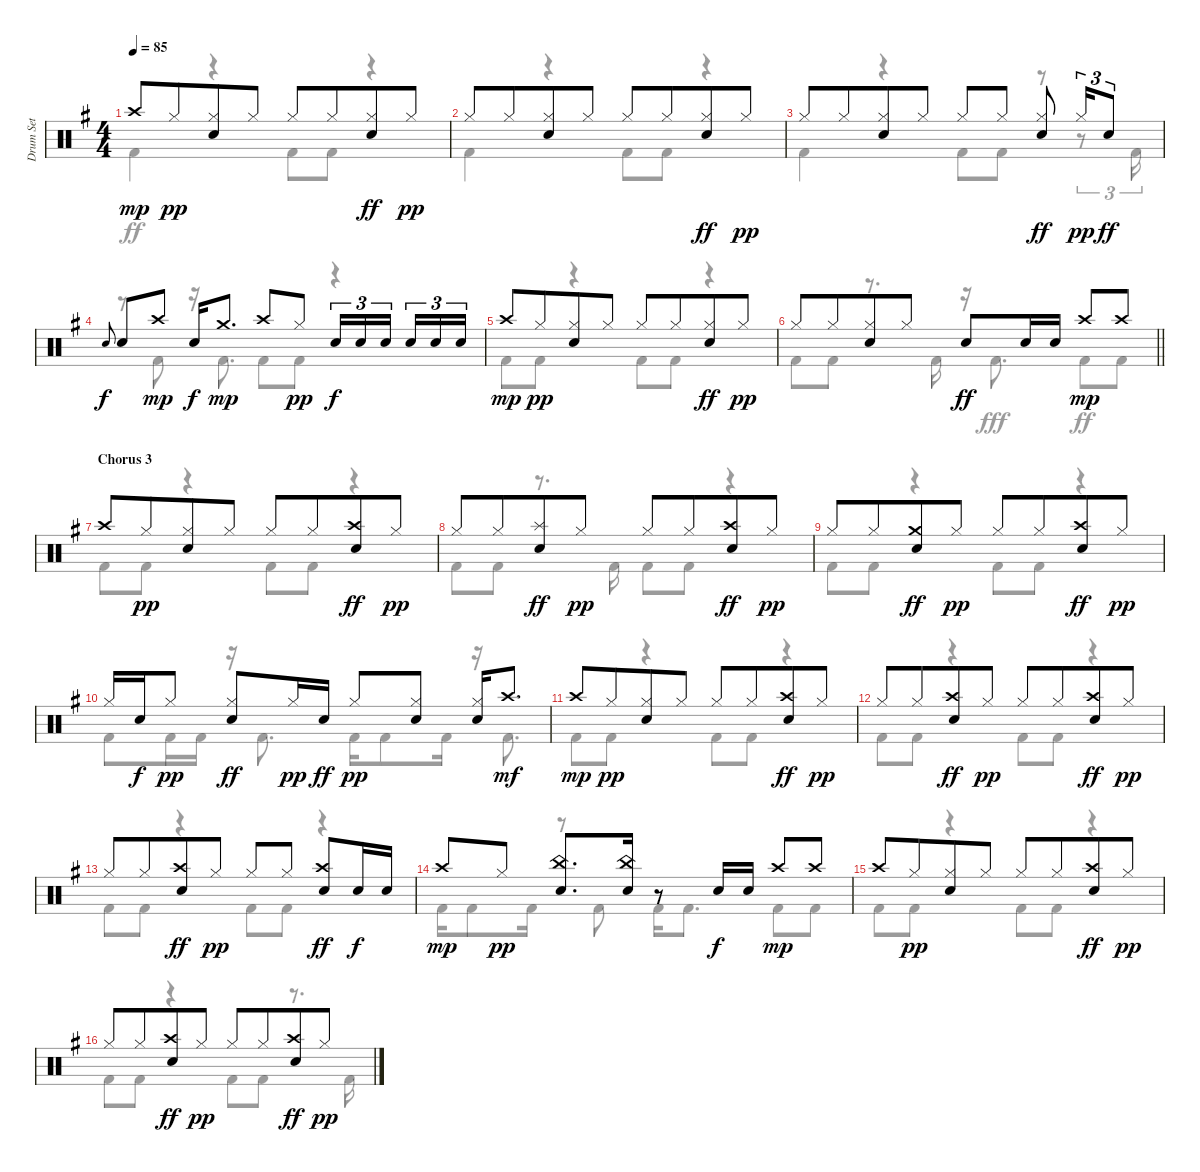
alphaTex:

\track ("Drum Set" "Drum Set") {instrument percussion}
\staff {score}
\articulation defaults
\voice
\ts (4 4)
\tempo 85
\clef neutral
\ks g "Crash high (hit)".8{dy mp} "Hi-Hat (closed)".8{dy pp beam merge}
("Hi-Hat (closed)" "Electric Snare (hit)").8 "Hi-Hat (closed)".8 "Hi-Hat (closed)".8 "Hi-Hat (closed)".8{beam merge} ("Hi-Hat (closed)" "Electric Snare (hit)").8{dy ff} "Hi-Hat (closed)".8{dy pp} |
"Hi-Hat (closed)".8 "Hi-Hat (closed)".8{beam merge} ("Hi-Hat (closed)" "Electric Snare (hit)").8 "Hi-Hat (closed)".8 "Hi-Hat (closed)".8 "Hi-Hat (closed)".8{beam merge} ("Hi-Hat (closed)" "Electric Snare (hit)").8{dy ff} "Hi-Hat (closed)".8{dy pp} |
"Hi-Hat (closed)".8 "Hi-Hat (closed)".8{beam merge} ("Hi-Hat (closed)" "Electric Snare (hit)").8 "Hi-Hat (closed)".8 "Hi-Hat (closed)".8 "Hi-Hat (closed)".8 ("Hi-Hat (closed)" "Electric Snare (hit)").8{dy ff} "Hi-Hat (closed)".16{tu (3 2) dy pp} "Electric Snare (hit)".8{tu (3 2) dy ff} |
"Electric Snare (hit)".8{gr onbeat dy f} "Electric Snare (hit)".8 "Crash high (hit)".8{dy mp} "Electric Snare (hit)".16{dy f} "Crash medium (hit)".8{d dy mp} "Crash high (hit)".8 "Hi-Hat (closed)".8{dy pp} "Electric Snare (hit)".16{tu (3 2) dy f} "Electric Snare (hit)".16{tu (3 2)} "Electric Snare (hit)".16{tu (3 2) beam splitsecondary} "Electric Snare (hit)".16{tu (3 2)} "Electric Snare (hit)".16{tu (3 2)} "Electric Snare (hit)".16{tu (3 2)} |
"Crash high (hit)".8{dy mp} "Hi-Hat (closed)".8{dy pp beam merge} ("Hi-Hat (closed)" "Electric Snare (hit)").8 "Hi-Hat (closed)".8 "Hi-Hat (closed)".8 "Hi-Hat (closed)".8{beam merge} ("Hi-Hat (closed)" "Electric Snare (hit)").8{dy ff} "Hi-Hat (closed)".8{dy pp} |
\barLineRight lightlight "Hi-Hat (closed)".8 "Hi-Hat (closed)".8{beam merge}
("Hi-Hat (closed)" "Electric Snare (hit)").8 "Hi-Hat (closed)".8 "Electric Snare (hit)".8{dy ff} "Electric Snare (hit)".16 "Electric Snare (hit)".16 "Crash high (hit)".8{dy mp} "Crash high (hit)".8 |
\section ("" "Chorus 3")
"Crash high (hit)".8 "Hi-Hat (closed)".8{dy pp beam merge} ("Hi-Hat (closed)" "Electric Snare (hit)").8 "Hi-Hat (closed)".8 "Hi-Hat (closed)".8 "Hi-Hat (closed)".8{beam merge} ("Crash high (hit)" "Electric Snare (hit)").8{dy ff} "Hi-Hat (closed)".8{dy pp} |
"Hi-Hat (closed)".8 "Hi-Hat (closed)".8{beam merge} ("Splash (hit)" "Electric Snare (hit)").8{dy ff} "Hi-Hat (closed)".8{dy pp} "Hi-Hat (closed)".8 "Hi-Hat (closed)".8{beam merge} ("Crash high (hit)" "Electric Snare (hit)").8{dy ff} "Hi-Hat (closed)".8{dy pp} |
"Hi-Hat (closed)".8 "Hi-Hat (closed)".8{beam merge} ("Crash medium (hit)" "Electric Snare (hit)").8{dy ff} "Hi-Hat (closed)".8{dy pp} "Hi-Hat (closed)".8 "Hi-Hat (closed)".8{beam merge} ("Crash high (hit)" "Electric Snare (hit)").8{dy ff} "Hi-Hat (closed)".8{dy pp} |
"Hi-Hat (closed)".16 "Electric Snare (hit)".16{dy f} "Hi-Hat (closed)".8{dy pp} ("Hi-Hat (closed)" "Electric Snare (hit)").8{dy ff} "Hi-Hat (closed)".16{dy pp} "Electric Snare (hit)".16{dy ff} "Hi-Hat (closed)".8{dy pp} ("Hi-Hat (closed)" "Electric Snare (hit)").8 ("Hi-Hat (closed)" "Electric Snare (hit)").16 "Crash high (hit)".8{d dy mf} |
"Crash high (hit)".8{dy mp} "Hi-Hat (closed)".8{dy pp beam merge} ("Hi-Hat (closed)" "Electric Snare (hit)").8 "Hi-Hat (closed)".8 "Hi-Hat (closed)".8 "Hi-Hat (closed)".8{beam merge} ("Crash high (hit)" "Electric Snare (hit)").8{dy ff} "Hi-Hat (closed)".8{dy pp} |
"Hi-Hat (closed)".8 "Hi-Hat (closed)".8{beam merge} ("Crash high (hit)" "Electric Snare (hit)").8{dy ff} "Hi-Hat (closed)".8{dy pp} "Hi-Hat (closed)".8 "Hi-Hat (closed)".8{beam merge} ("Crash high (hit)" "Electric Snare (hit)").8{dy ff} "Hi-Hat (closed)".8{dy pp} |
"Hi-Hat (closed)".8 "Hi-Hat (closed)".8{beam merge} ("Crash high (hit)" "Electric Snare (hit)").8{dy ff} "Hi-Hat (closed)".8{dy pp} "Hi-Hat (closed)".8 "Hi-Hat (closed)".8 ("Crash high (hit)" "Electric Snare (hit)").8{dy ff} "Electric Snare (hit)".16{dy f} "Electric Snare (hit)".16 |
"Crash high (hit)".8{dy mp} "Hi-Hat (closed)".8{dy pp} ("Electric Snare (hit)" "China (hit)").8{d} ("Electric Snare (hit)" "China (hit)").16 r.8 "Electric Snare (hit)".16{dy f} "Electric Snare (hit)".16 "Crash high (hit)".8{dy mp} "Crash high (hit)".8 |
"Crash high (hit)".8 "Hi-Hat (closed)".8{dy pp beam merge} ("Hi-Hat (closed)" "Electric Snare (hit)").8 "Hi-Hat (closed)".8 "Hi-Hat (closed)".8 "Hi-Hat (closed)".8{beam merge} ("Crash high (hit)" "Electric Snare (hit)").8{dy ff} "Hi-Hat (closed)".8{dy pp} |
"Hi-Hat (closed)".8 "Hi-Hat (closed)".8{beam merge} ("Crash high (hit)" "Electric Snare (hit)").8{dy ff} "Hi-Hat (closed)".8{dy pp} "Hi-Hat (closed)".8 "Hi-Hat (closed)".8{beam merge} ("Crash high (hit)" "Electric Snare (hit)").8{dy ff} "Hi-Hat (closed)".8{dy pp}
\voice
\clef neutral
\ottava regular
\simile none
\ks g "Kick (hit) 2".4{dy ff}
r.4 "Kick (hit) 2".8 "Kick (hit) 2".8 r.4 |
"Kick (hit) 2".4 r.4 "Kick (hit) 2".8 "Kick (hit) 2".8 r.4 |
"Kick (hit) 2".4 r.4 "Kick (hit) 2".8 "Kick (hit) 2".8 r.8 r.8{tu (3 2)} "Kick (hit) 2".16{tu (3 2)} |
r.8 "Kick (hit) 2".8 r.16 "Kick (hit) 2".8{d} "Kick (hit) 2".8 "Kick (hit) 2".8 r.4 |
"Kick (hit) 2".8 "Kick (hit) 2".8 r.4 "Kick (hit) 2".8 "Kick (hit) 2".8 r.4 |
\barLineRight lightlight "Kick (hit) 2".8 "Kick (hit) 2".8
r.8{d} "Kick (hit) 2".16 r.16 "Kick (hit) 2".8{d dy fff} "Kick (hit) 2".8{dy ff} "Kick (hit) 2".8 |
"Kick (hit) 2".8 "Kick (hit) 2".8 r.4 "Kick (hit) 2".8 "Kick (hit) 2".8 r.4 |
"Kick (hit) 2".8 "Kick (hit) 2".8 r.8{d} "Kick (hit) 2".16 "Kick (hit) 2".8 "Kick (hit) 2".8 r.4 |
"Kick (hit) 2".8 "Kick (hit) 2".8 r.4 "Kick (hit) 2".8 "Kick (hit) 2".8 r.4 |
"Kick (hit) 2".8 "Kick (hit) 2".16 "Kick (hit) 2".16 r.16 "Kick (hit) 2".8{d} "Kick (hit) 2".16 "Kick (hit) 2".8 "Kick (hit) 2".16 r.16 "Kick (hit) 2".8{d} |
"Kick (hit) 2".8 "Kick (hit) 2".8 r.4 "Kick (hit) 2".8 "Kick (hit) 2".8 r.4 |
"Kick (hit) 2".8 "Kick (hit) 2".8 r.4 "Kick (hit) 2".8 "Kick (hit) 2".8 r.4 |
"Kick (hit) 2".8 "Kick (hit) 2".8 r.4 "Kick (hit) 2".8 "Kick (hit) 2".8 r.4 |
"Kick (hit) 2".16 "Kick (hit) 2".8 "Kick (hit) 2".16 r.8 "Kick (hit) 2".8 "Kick (hit) 2".16 "Kick (hit) 2".8{d} "Kick (hit) 2".8 "Kick (hit) 2".8 |
"Kick (hit) 2".8 "Kick (hit) 2".8 r.4 "Kick (hit) 2".8 "Kick (hit) 2".8 r.4 |
"Kick (hit) 2".8 "Kick (hit) 2".8 r.4 "Kick (hit) 2".8 "Kick (hit) 2".8 r.8{d} "Kick (hit) 2".16
